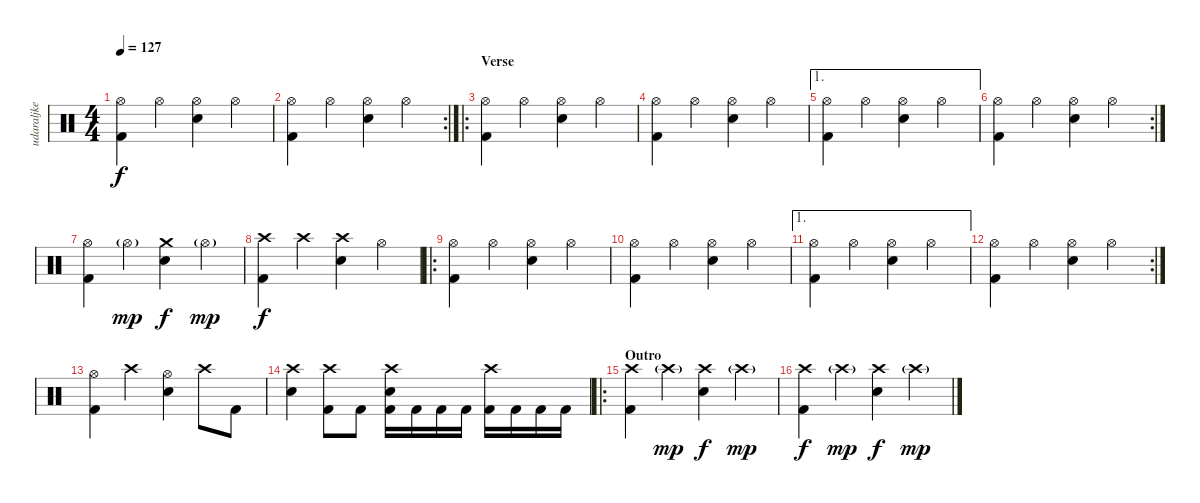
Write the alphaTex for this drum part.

\track ("udaraljke" "udaraljke") {instrument percussion}
\staff {score}
\articulation defaults
\ts (4 4)
\tempo 127
\clef neutral
\ks c
("Hi-Hat (open)" "Kick (hit) 2").4{dy f} "Hi-Hat (open)".4 ("Hi-Hat (open)" "Electric Snare (hit)").4 "Hi-Hat (open)".4 |
\rc 2
("Hi-Hat (open)" "Kick (hit) 2").4 "Hi-Hat (open)".4 ("Hi-Hat (open)" "Electric Snare (hit)").4 "Hi-Hat (open)".4 |
\ro
\section ("" "Verse")
("Hi-Hat (open)" "Kick (hit) 2").4 "Hi-Hat (open)".4 ("Hi-Hat (open)" "Electric Snare (hit)").4 "Hi-Hat (open)".4 |
("Hi-Hat (open)" "Kick (hit) 2").4 "Hi-Hat (open)".4 ("Hi-Hat (open)" "Electric Snare (hit)").4 "Hi-Hat (open)".4 |
\ae 1
("Hi-Hat (open)" "Kick (hit) 2").4 "Hi-Hat (open)".4 ("Hi-Hat (open)" "Electric Snare (hit)").4 "Hi-Hat (open)".4 |
\rc 2
("Hi-Hat (open)" "Kick (hit) 2").4 "Hi-Hat (open)".4 ("Hi-Hat (open)" "Electric Snare (hit)").4 "Hi-Hat (open)".4 |
("Hi-Hat (open)" "Kick (hit) 2").4 "Hi-Hat (open)"{g}.4{dy mp} ("Crash medium (hit)" "Electric Snare (hit)").4{dy f} "Hi-Hat (open)"{g}.4{dy mp} |
("Crash high (hit)" "Kick (hit) 2").4{dy f} "Crash high (hit)".4 ("Crash high (hit)" "Electric Snare (hit)").4 "Hi-Hat (open)".4 |
\ro
("Hi-Hat (open)" "Kick (hit) 2").4 "Hi-Hat (open)".4 ("Hi-Hat (open)" "Electric Snare (hit)").4 "Hi-Hat (open)".4 |
("Hi-Hat (open)" "Kick (hit) 2").4 "Hi-Hat (open)".4 ("Hi-Hat (open)" "Electric Snare (hit)").4 "Hi-Hat (open)".4 |
\ae 1
("Hi-Hat (open)" "Kick (hit) 2").4 "Hi-Hat (open)".4 ("Hi-Hat (open)" "Electric Snare (hit)").4 "Hi-Hat (open)".4 |
\rc 2
("Hi-Hat (open)" "Kick (hit) 2").4 "Hi-Hat (open)".4 ("Hi-Hat (open)" "Electric Snare (hit)").4 "Hi-Hat (open)".4 |
("Hi-Hat (open)" "Kick (hit) 2").4 "Crash high (hit)".4 ("Hi-Hat (open)" "Electric Snare (hit)").4 "Crash high (hit)".8 "Kick (hit) 2".8 |
("Crash high (hit)" "Electric Snare (hit)").4 ("Crash high (hit)" "Kick (hit) 2").8 "Kick (hit) 2".8 ("Crash high (hit)" "Electric Snare (hit)" "Kick (hit) 2").16 "Kick (hit) 2".16 "Kick (hit) 2".16 "Kick (hit) 2".16 ("Crash high (hit)" "Kick (hit) 2").16 "Kick (hit) 2".16 "Kick (hit) 2".16 "Kick (hit) 2".16 |
\ro
\section ("" "Outro")
("Crash high (hit)" "Kick (hit) 2").4 "Crash high (hit)"{g}.4{dy mp} ("Crash high (hit)" "Electric Snare (hit)").4{dy f} "Crash high (hit)"{g}.4{dy mp} |
("Crash high (hit)" "Kick (hit) 2").4{dy f} "Crash high (hit)"{g}.4{dy mp} ("Crash high (hit)" "Electric Snare (hit)").4{dy f} "Crash high (hit)"{g}.4{dy mp}
